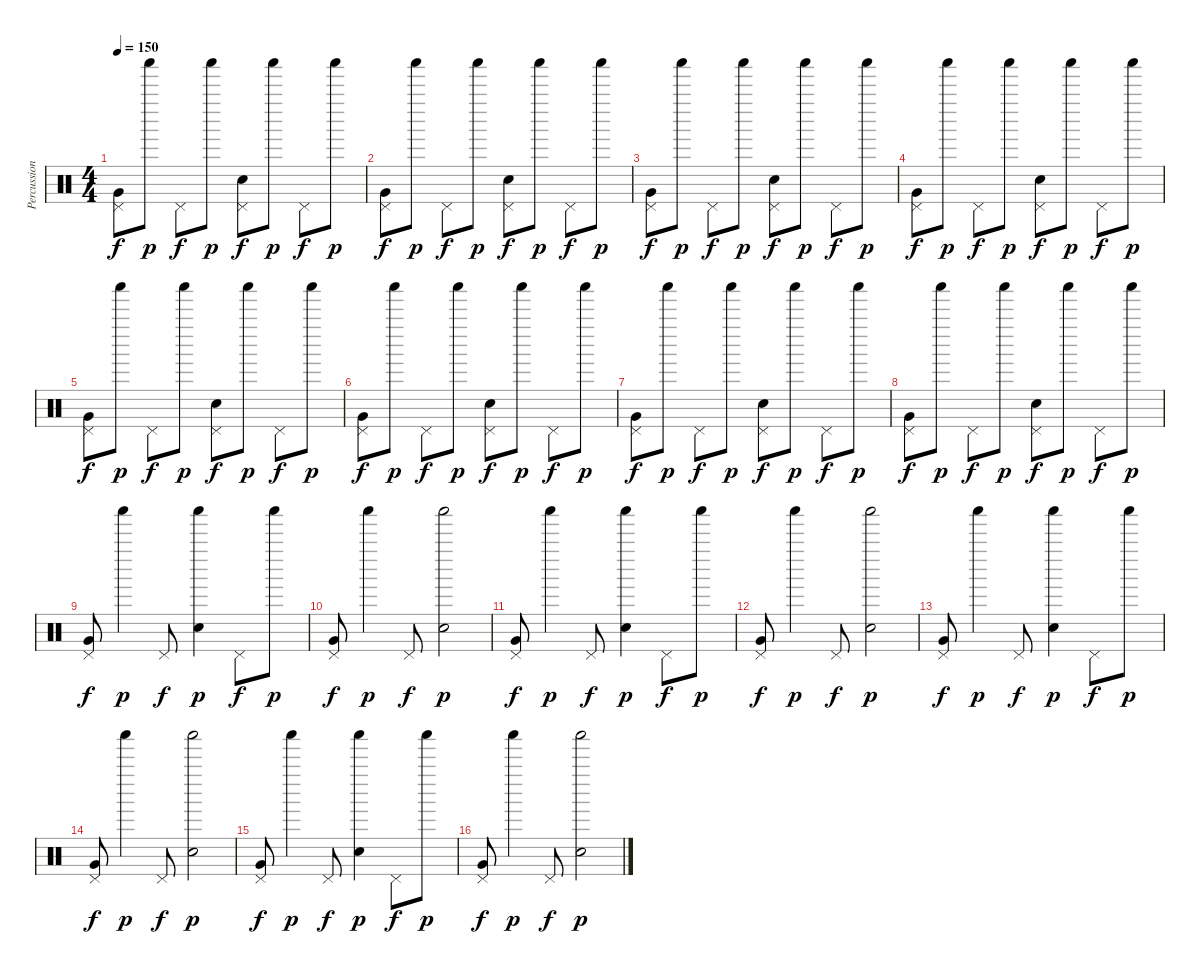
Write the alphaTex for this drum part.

\track ("Percussion" "Percussion") {instrument percussion}
\staff {score}
\articulation defaults
\ts (4 4)
\tempo 150
\clef neutral
\ks c
("Very Low Tom (hit)" "Pedal Hi-Hat (hit)").8{dy f} "Shaker (hit)".8{dy p} "Pedal Hi-Hat (hit)".8{dy f} "Shaker (hit)".8{dy p} ("Snare (hit) 2" "Pedal Hi-Hat (hit)").8{dy f} "Shaker (hit)".8{dy p} "Pedal Hi-Hat (hit)".8{dy f} "Shaker (hit)".8{dy p} |
("Very Low Tom (hit)" "Pedal Hi-Hat (hit)").8{dy f} "Shaker (hit)".8{dy p} "Pedal Hi-Hat (hit)".8{dy f} "Shaker (hit)".8{dy p} ("Snare (hit) 2" "Pedal Hi-Hat (hit)").8{dy f} "Shaker (hit)".8{dy p} "Pedal Hi-Hat (hit)".8{dy f} "Shaker (hit)".8{dy p} |
("Very Low Tom (hit)" "Pedal Hi-Hat (hit)").8{dy f} "Shaker (hit)".8{dy p} "Pedal Hi-Hat (hit)".8{dy f} "Shaker (hit)".8{dy p} ("Snare (hit) 2" "Pedal Hi-Hat (hit)").8{dy f} "Shaker (hit)".8{dy p} "Pedal Hi-Hat (hit)".8{dy f} "Shaker (hit)".8{dy p} |
("Very Low Tom (hit)" "Pedal Hi-Hat (hit)").8{dy f} "Shaker (hit)".8{dy p} "Pedal Hi-Hat (hit)".8{dy f} "Shaker (hit)".8{dy p} ("Snare (hit) 2" "Pedal Hi-Hat (hit)").8{dy f} "Shaker (hit)".8{dy p} "Pedal Hi-Hat (hit)".8{dy f} "Shaker (hit)".8{dy p} |
("Very Low Tom (hit)" "Pedal Hi-Hat (hit)").8{dy f} "Shaker (hit)".8{dy p} "Pedal Hi-Hat (hit)".8{dy f} "Shaker (hit)".8{dy p} ("Snare (hit) 2" "Pedal Hi-Hat (hit)").8{dy f} "Shaker (hit)".8{dy p} "Pedal Hi-Hat (hit)".8{dy f} "Shaker (hit)".8{dy p} |
("Very Low Tom (hit)" "Pedal Hi-Hat (hit)").8{dy f} "Shaker (hit)".8{dy p} "Pedal Hi-Hat (hit)".8{dy f} "Shaker (hit)".8{dy p} ("Snare (hit) 2" "Pedal Hi-Hat (hit)").8{dy f} "Shaker (hit)".8{dy p} "Pedal Hi-Hat (hit)".8{dy f} "Shaker (hit)".8{dy p} |
("Very Low Tom (hit)" "Pedal Hi-Hat (hit)").8{dy f} "Shaker (hit)".8{dy p} "Pedal Hi-Hat (hit)".8{dy f} "Shaker (hit)".8{dy p} ("Snare (hit) 2" "Pedal Hi-Hat (hit)").8{dy f} "Shaker (hit)".8{dy p} "Pedal Hi-Hat (hit)".8{dy f} "Shaker (hit)".8{dy p} |
("Very Low Tom (hit)" "Pedal Hi-Hat (hit)").8{dy f} "Shaker (hit)".8{dy p} "Pedal Hi-Hat (hit)".8{dy f} "Shaker (hit)".8{dy p} ("Snare (hit) 2" "Pedal Hi-Hat (hit)").8{dy f} "Shaker (hit)".8{dy p} "Pedal Hi-Hat (hit)".8{dy f} "Shaker (hit)".8{dy p} |
("Very Low Tom (hit)" "Pedal Hi-Hat (hit)").8{dy f} "Shaker (hit)".4{dy p} "Pedal Hi-Hat (hit)".8{dy f} ("Snare (hit) 2" "Shaker (hit)").4{dy p} "Pedal Hi-Hat (hit)".8{dy f} "Shaker (hit)".8{dy p} |
("Very Low Tom (hit)" "Pedal Hi-Hat (hit)").8{dy f} "Shaker (hit)".4{dy p} "Pedal Hi-Hat (hit)".8{dy f} ("Snare (hit) 2" "Shaker (hit)").2{dy p} |
("Very Low Tom (hit)" "Pedal Hi-Hat (hit)").8{dy f} "Shaker (hit)".4{dy p} "Pedal Hi-Hat (hit)".8{dy f} ("Snare (hit) 2" "Shaker (hit)").4{dy p} "Pedal Hi-Hat (hit)".8{dy f} "Shaker (hit)".8{dy p} |
("Very Low Tom (hit)" "Pedal Hi-Hat (hit)").8{dy f} "Shaker (hit)".4{dy p} "Pedal Hi-Hat (hit)".8{dy f} ("Snare (hit) 2" "Shaker (hit)").2{dy p} |
("Very Low Tom (hit)" "Pedal Hi-Hat (hit)").8{dy f} "Shaker (hit)".4{dy p} "Pedal Hi-Hat (hit)".8{dy f} ("Snare (hit) 2" "Shaker (hit)").4{dy p} "Pedal Hi-Hat (hit)".8{dy f} "Shaker (hit)".8{dy p} |
("Very Low Tom (hit)" "Pedal Hi-Hat (hit)").8{dy f} "Shaker (hit)".4{dy p} "Pedal Hi-Hat (hit)".8{dy f} ("Snare (hit) 2" "Shaker (hit)").2{dy p} |
("Very Low Tom (hit)" "Pedal Hi-Hat (hit)").8{dy f} "Shaker (hit)".4{dy p} "Pedal Hi-Hat (hit)".8{dy f} ("Snare (hit) 2" "Shaker (hit)").4{dy p} "Pedal Hi-Hat (hit)".8{dy f} "Shaker (hit)".8{dy p} |
("Very Low Tom (hit)" "Pedal Hi-Hat (hit)").8{dy f} "Shaker (hit)".4{dy p} "Pedal Hi-Hat (hit)".8{dy f} ("Snare (hit) 2" "Shaker (hit)").2{dy p}
